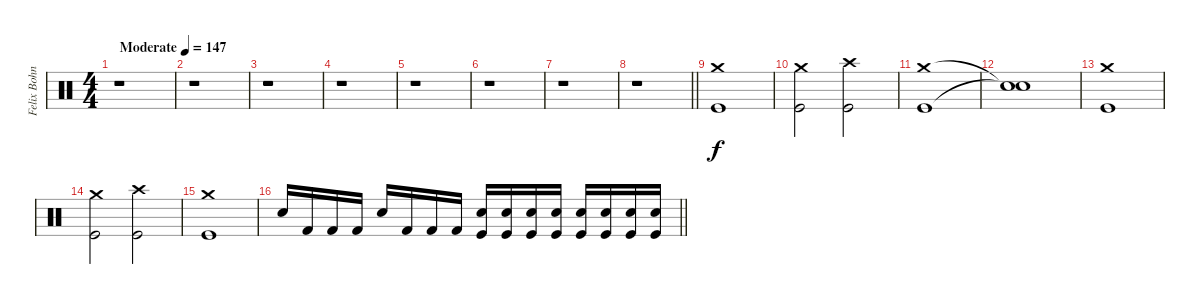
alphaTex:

\track ("Felix Bohnke - Drums" "Felix Bohn") {instrument percussion}
\staff {score}
\articulation defaults
\ts (4 4)
\tempo (147 "Moderate")
\clef neutral
\ks c
r.1{dy f} |
r.1 |
r.1 |
r.1 |
r.1 |
r.1 |
r.1 |
\barLineRight lightlight
r.1 |
("Crash medium (hit)" "Kick (hit)").1 |
("Crash medium (hit)" "Kick (hit)").2 ("Crash high (hit)" "Kick (hit)").2 |
("Crash medium (hit)" "Kick (hit)").1 |
("Snare (hit)"{t} "Snare (hit)"{t}).1 |
("Crash medium (hit)" "Kick (hit)").1 |
("Crash medium (hit)" "Kick (hit)").2 ("Crash high (hit)" "Kick (hit)").2 |
("Crash medium (hit)" "Kick (hit)").1 |
\barLineRight lightlight "Snare (hit) 2".16 "Kick (hit) 2".16 "Kick (hit) 2".16 "Kick (hit) 2".16 "Snare (hit) 2".16 "Kick (hit) 2".16 "Kick (hit) 2".16 "Kick (hit) 2".16
("Snare (hit) 2" "Kick (hit)").16 ("Snare (hit) 2" "Kick (hit)").16 ("Snare (hit) 2" "Kick (hit)").16 ("Snare (hit) 2" "Kick (hit)").16 ("Snare (hit) 2" "Kick (hit)").16 ("Snare (hit) 2" "Kick (hit)").16 ("Snare (hit) 2" "Kick (hit)").16 ("Snare (hit) 2" "Kick (hit)").16
